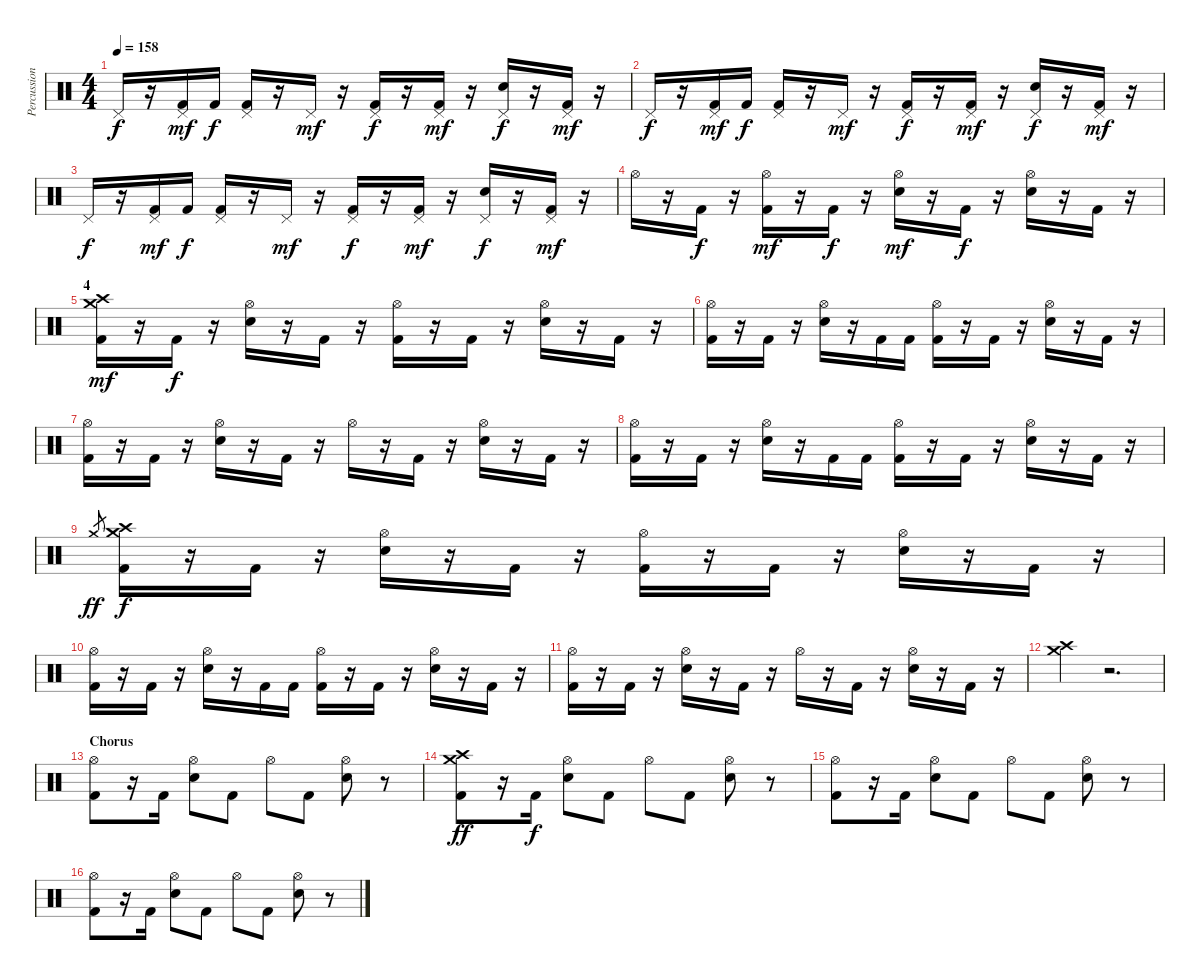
\track ("Percussions" "Percussion") {instrument percussion}
\staff {score}
\articulation defaults
\ts (4 4)
\tempo 158
\clef neutral
\ks c "Pedal Hi-Hat (hit)".16{dy f}
r.16 ("Pedal Hi-Hat (hit)" "Kick (hit) 2").16{dy mf} "Kick (hit) 2".16{dy f} ("Pedal Hi-Hat (hit)" "Kick (hit) 2").16 r.16 "Pedal Hi-Hat (hit)".16{dy mf} r.16 ("Pedal Hi-Hat (hit)" "Kick (hit) 2").16{dy f} r.16 ("Pedal Hi-Hat (hit)" "Kick (hit) 2").16{dy mf} r.16 ("Pedal Hi-Hat (hit)" "Electric Snare (hit)").16{dy f} r.16 ("Pedal Hi-Hat (hit)" "Kick (hit) 2").16{dy mf} r.16 |
"Pedal Hi-Hat (hit)".16{dy f} r.16 ("Pedal Hi-Hat (hit)" "Kick (hit) 2").16{dy mf} "Kick (hit) 2".16{dy f} ("Pedal Hi-Hat (hit)" "Kick (hit) 2").16 r.16 "Pedal Hi-Hat (hit)".16{dy mf} r.16 ("Pedal Hi-Hat (hit)" "Kick (hit) 2").16{dy f} r.16 ("Pedal Hi-Hat (hit)" "Kick (hit) 2").16{dy mf} r.16 ("Pedal Hi-Hat (hit)" "Electric Snare (hit)").16{dy f} r.16 ("Pedal Hi-Hat (hit)" "Kick (hit) 2").16{dy mf} r.16 |
"Pedal Hi-Hat (hit)".16{dy f} r.16 ("Pedal Hi-Hat (hit)" "Kick (hit) 2").16{dy mf} "Kick (hit) 2".16{dy f} ("Pedal Hi-Hat (hit)" "Kick (hit) 2").16 r.16 "Pedal Hi-Hat (hit)".16{dy mf} r.16 ("Pedal Hi-Hat (hit)" "Kick (hit) 2").16{dy f} r.16 ("Pedal Hi-Hat (hit)" "Kick (hit) 2").16{dy mf} r.16 ("Pedal Hi-Hat (hit)" "Electric Snare (hit)").16{dy f} r.16 ("Pedal Hi-Hat (hit)" "Kick (hit) 2").16{dy mf} r.16 |
"Hi-Hat (open)".16 r.16 "Kick (hit) 2".16{dy f} r.16 ("Hi-Hat (open)" "Kick (hit) 2").16{dy mf} r.16 "Kick (hit) 2".16{dy f} r.16 ("Hi-Hat (open)" "Electric Snare (hit)").16{dy mf} r.16 "Kick (hit) 2".16{dy f} r.16 ("Hi-Hat (open)" "Electric Snare (hit)").16 r.16 "Kick (hit) 2".16 r.16 |
\section ("" "4")
("Crash medium (hit)" "Crash high (hit)" "Kick (hit) 2").16{dy mf} r.16 "Kick (hit) 2".16{dy f} r.16 ("Hi-Hat (open)" "Electric Snare (hit)").16 r.16 "Kick (hit) 2".16 r.16 ("Hi-Hat (open)" "Kick (hit) 2").16 r.16 "Kick (hit) 2".16 r.16 ("Hi-Hat (open)" "Electric Snare (hit)").16 r.16 "Kick (hit) 2".16 r.16 |
("Hi-Hat (open)" "Kick (hit) 2").16 r.16 "Kick (hit) 2".16 r.16 ("Hi-Hat (open)" "Electric Snare (hit)").16 r.16 "Kick (hit) 2".16 "Kick (hit) 2".16 ("Hi-Hat (open)" "Kick (hit) 2").16 r.16 "Kick (hit) 2".16 r.16 ("Hi-Hat (open)" "Electric Snare (hit)").16 r.16 "Kick (hit) 2".16 r.16 |
("Hi-Hat (open)" "Kick (hit) 2").16 r.16 "Kick (hit) 2".16 r.16 ("Hi-Hat (open)" "Electric Snare (hit)").16 r.16 "Kick (hit) 2".16 r.16 "Hi-Hat (open)".16 r.16 "Kick (hit) 2".16 r.16 ("Hi-Hat (open)" "Electric Snare (hit)").16 r.16 "Kick (hit) 2".16 r.16 |
("Hi-Hat (open)" "Kick (hit) 2").16 r.16 "Kick (hit) 2".16 r.16 ("Hi-Hat (open)" "Electric Snare (hit)").16 r.16 "Kick (hit) 2".16 "Kick (hit) 2".16 ("Hi-Hat (open)" "Kick (hit) 2").16 r.16 "Kick (hit) 2".16 r.16 ("Hi-Hat (open)" "Electric Snare (hit)").16 r.16 "Kick (hit) 2".16 r.16 |
"Crash medium (hit)".8{gr dy ff} ("Crash medium (hit)" "Crash high (hit)" "Kick (hit) 2").16{dy f} r.16 "Kick (hit) 2".16 r.16 ("Hi-Hat (open)" "Electric Snare (hit)").16 r.16 "Kick (hit) 2".16 r.16 ("Hi-Hat (open)" "Kick (hit) 2").16 r.16 "Kick (hit) 2".16 r.16 ("Hi-Hat (open)" "Electric Snare (hit)").16 r.16 "Kick (hit) 2".16 r.16 |
("Hi-Hat (open)" "Kick (hit) 2").16 r.16 "Kick (hit) 2".16 r.16 ("Hi-Hat (open)" "Electric Snare (hit)").16 r.16 "Kick (hit) 2".16 "Kick (hit) 2".16 ("Hi-Hat (open)" "Kick (hit) 2").16 r.16 "Kick (hit) 2".16 r.16 ("Hi-Hat (open)" "Electric Snare (hit)").16 r.16 "Kick (hit) 2".16 r.16 |
("Hi-Hat (open)" "Kick (hit) 2").16 r.16 "Kick (hit) 2".16 r.16 ("Hi-Hat (open)" "Electric Snare (hit)").16 r.16 "Kick (hit) 2".16 r.16 "Hi-Hat (open)".16 r.16 "Kick (hit) 2".16 r.16 ("Hi-Hat (open)" "Electric Snare (hit)").16 r.16 "Kick (hit) 2".16 r.16 |
("Crash high (hit)" "Crash medium (hit)").4 r.2{d} |
\section ("" "Chorus")
("Hi-Hat (open)" "Kick (hit) 2").8 r.16 "Kick (hit) 2".16 ("Hi-Hat (open)" "Electric Snare (hit)").8 "Kick (hit) 2".8 "Hi-Hat (open)".8 "Kick (hit) 2".8 ("Hi-Hat (open)" "Electric Snare (hit)").8 r.8 |
("Crash high (hit)" "Crash medium (hit)" "Kick (hit) 2").8{dy ff} r.16 "Kick (hit) 2".16{dy f} ("Hi-Hat (open)" "Electric Snare (hit)").8 "Kick (hit) 2".8 "Hi-Hat (open)".8 "Kick (hit) 2".8 ("Hi-Hat (open)" "Electric Snare (hit)").8 r.8 |
("Hi-Hat (open)" "Kick (hit) 2").8 r.16 "Kick (hit) 2".16 ("Hi-Hat (open)" "Electric Snare (hit)").8 "Kick (hit) 2".8 "Hi-Hat (open)".8 "Kick (hit) 2".8 ("Hi-Hat (open)" "Electric Snare (hit)").8 r.8 |
("Hi-Hat (open)" "Kick (hit) 2").8 r.16 "Kick (hit) 2".16 ("Hi-Hat (open)" "Electric Snare (hit)").8 "Kick (hit) 2".8 "Hi-Hat (open)".8 "Kick (hit) 2".8 ("Hi-Hat (open)" "Electric Snare (hit)").8 r.8
